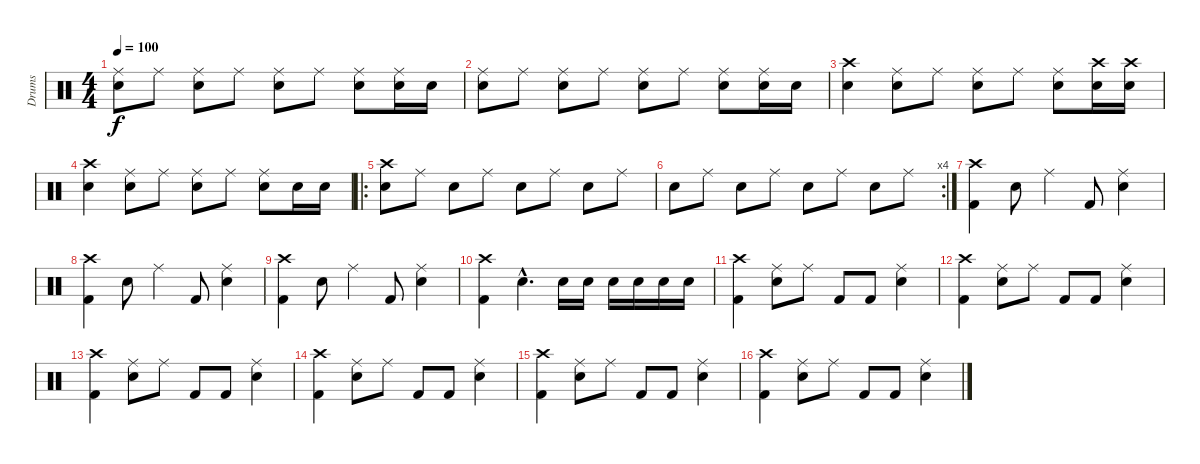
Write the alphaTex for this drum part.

\track ("Drums" "Drums") {instrument percussion}
\staff {score}
\articulation defaults
\ts (4 4)
\tempo 100
\clef neutral
\ks c
("Ride (middle)" "Snare (hit) 2").8{dy f} "Ride (middle)".8 ("Ride (middle)" "Snare (hit) 2").8 "Ride (middle)".8 ("Ride (middle)" "Snare (hit) 2").8 "Ride (middle)".8 ("Ride (middle)" "Snare (hit) 2").8 ("Ride (middle)" "Snare (hit) 2").16 "Snare (hit) 2".16 |
("Ride (middle)" "Snare (hit) 2").8 "Ride (middle)".8 ("Ride (middle)" "Snare (hit) 2").8 "Ride (middle)".8 ("Ride (middle)" "Snare (hit) 2").8 "Ride (middle)".8 ("Ride (middle)" "Snare (hit) 2").8 ("Ride (middle)" "Snare (hit) 2").16 "Snare (hit) 2".16 |
("Crash high (hit)" "Snare (hit) 2").4 ("Ride (middle)" "Snare (hit) 2").8 "Ride (middle)".8 ("Ride (middle)" "Snare (hit) 2").8 "Ride (middle)".8 ("Ride (middle)" "Snare (hit) 2").8 ("Crash high (hit)" "Snare (hit) 2").16 ("Crash high (hit)" "Snare (hit) 2").16 |
("Crash high (hit)" "Snare (hit) 2").4 ("Ride (middle)" "Snare (hit) 2").8 "Ride (middle)".8 ("Ride (middle)" "Snare (hit) 2").8 "Ride (middle)".8 ("Ride (middle)" "Snare (hit) 2").8 "Snare (hit) 2".16 "Snare (hit) 2".16 |
\ro
("Crash high (hit)" "Snare (hit) 2").8 "Ride (middle)".8 "Snare (hit) 2".8 "Ride (middle)".8 "Snare (hit) 2".8 "Ride (middle)".8 "Snare (hit) 2".8 "Ride (middle)".8 |
\rc 4 "Snare (hit) 2".8 "Ride (middle)".8 "Snare (hit) 2".8 "Ride (middle)".8 "Snare (hit) 2".8 "Ride (middle)".8 "Snare (hit) 2".8 "Ride (middle)".8
|
("Crash high (hit)" "Kick (hit) 2").4 "Snare (hit) 2".8 "Ride (middle)".4 "Kick (hit) 2".8 ("Ride (middle)" "Snare (hit) 2").4 |
("Crash high (hit)" "Kick (hit) 2").4 "Snare (hit) 2".8 "Ride (middle)".4 "Kick (hit) 2".8 ("Ride (middle)" "Snare (hit) 2").4 |
("Crash high (hit)" "Kick (hit) 2").4 "Snare (hit) 2".8 "Ride (middle)".4 "Kick (hit) 2".8 ("Ride (middle)" "Snare (hit) 2").4 |
("Crash high (hit)" "Kick (hit) 2").4 "Snare (hit) 2"{hac}.4{d} "Snare (hit) 2".16 "Snare (hit) 2".16 "Snare (hit) 2".16 "Snare (hit) 2".16 "Snare (hit) 2".16 "Snare (hit) 2".16 |
("Crash high (hit)" "Kick (hit) 2").4 ("Ride (middle)" "Snare (hit) 2").8 "Ride (middle)".8 "Kick (hit) 2".8 "Kick (hit) 2".8 ("Ride (middle)" "Snare (hit) 2").4 |
("Crash high (hit)" "Kick (hit) 2").4 ("Ride (middle)" "Snare (hit) 2").8 "Ride (middle)".8 "Kick (hit) 2".8 "Kick (hit) 2".8 ("Ride (middle)" "Snare (hit) 2").4 |
("Crash high (hit)" "Kick (hit) 2").4 ("Ride (middle)" "Snare (hit) 2").8 "Ride (middle)".8 "Kick (hit) 2".8 "Kick (hit) 2".8 ("Ride (middle)" "Snare (hit) 2").4 |
("Crash high (hit)" "Kick (hit) 2").4 ("Ride (middle)" "Snare (hit) 2").8 "Ride (middle)".8 "Kick (hit) 2".8 "Kick (hit) 2".8 ("Ride (middle)" "Snare (hit) 2").4 |
("Crash high (hit)" "Kick (hit) 2").4 ("Ride (middle)" "Snare (hit) 2").8 "Ride (middle)".8 "Kick (hit) 2".8 "Kick (hit) 2".8 ("Ride (middle)" "Snare (hit) 2").4 |
("Crash high (hit)" "Kick (hit) 2").4 ("Ride (middle)" "Snare (hit) 2").8 "Ride (middle)".8 "Kick (hit) 2".8 "Kick (hit) 2".8 ("Ride (middle)" "Snare (hit) 2").4
